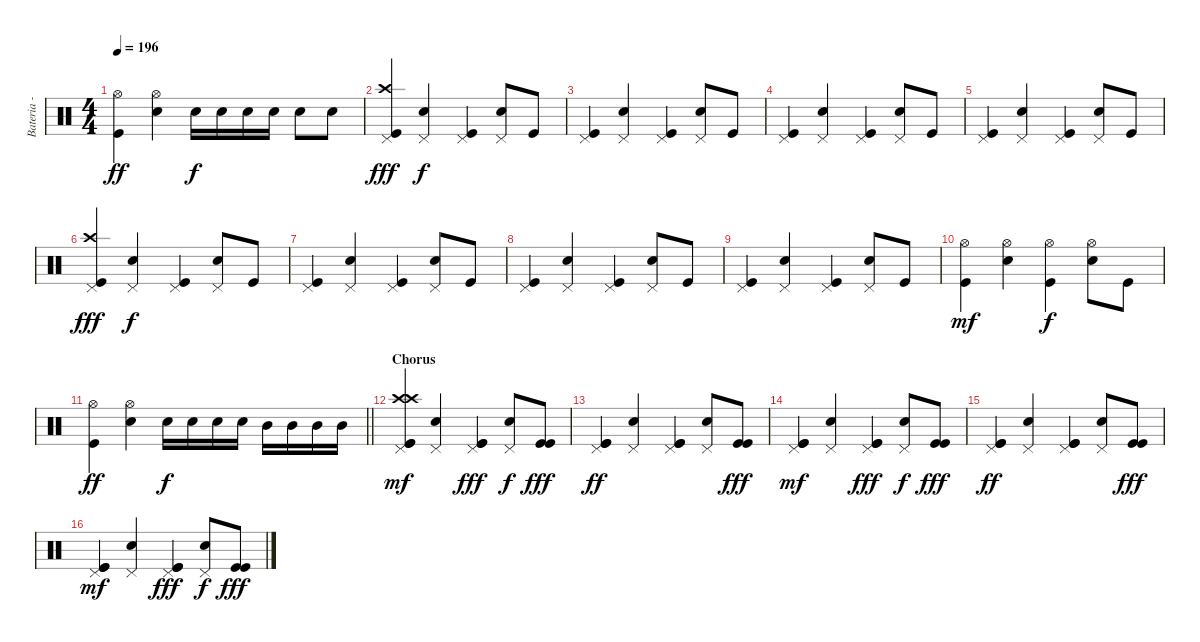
\track ("Bateria - Larzon" "Bateria - ") {instrument percussion}
\staff {score}
\articulation defaults
\ts (4 4)
\tempo 196
\clef neutral
\ks c
("Kick (hit)" "Hi-Hat (open)").4{dy ff} ("Electric Snare (hit)" "Hi-Hat (open)").4 "Electric Snare (hit)".16{dy f} "Electric Snare (hit)".16 "Electric Snare (hit)".16 "Electric Snare (hit)".16 "Electric Snare (hit)".8 "Electric Snare (hit)".8 |
("Kick (hit)" "Crash high (hit)" "Pedal Hi-Hat (hit)").4{dy fff} ("Electric Snare (hit)" "Pedal Hi-Hat (hit)").4{dy f} ("Kick (hit)" "Pedal Hi-Hat (hit)").4 ("Electric Snare (hit)" "Pedal Hi-Hat (hit)").8 "Kick (hit)".8 |
("Kick (hit)" "Pedal Hi-Hat (hit)").4 ("Electric Snare (hit)" "Pedal Hi-Hat (hit)").4 ("Kick (hit)" "Pedal Hi-Hat (hit)").4 ("Electric Snare (hit)" "Pedal Hi-Hat (hit)").8 "Kick (hit)".8 |
("Kick (hit)" "Pedal Hi-Hat (hit)").4 ("Electric Snare (hit)" "Pedal Hi-Hat (hit)").4 ("Kick (hit)" "Pedal Hi-Hat (hit)").4 ("Electric Snare (hit)" "Pedal Hi-Hat (hit)").8 "Kick (hit)".8 |
("Kick (hit)" "Pedal Hi-Hat (hit)").4 ("Electric Snare (hit)" "Pedal Hi-Hat (hit)").4 ("Kick (hit)" "Pedal Hi-Hat (hit)").4 ("Electric Snare (hit)" "Pedal Hi-Hat (hit)").8 "Kick (hit)".8 |
("Kick (hit)" "Crash high (hit)" "Pedal Hi-Hat (hit)").4{dy fff} ("Electric Snare (hit)" "Pedal Hi-Hat (hit)").4{dy f} ("Kick (hit)" "Pedal Hi-Hat (hit)").4 ("Electric Snare (hit)" "Pedal Hi-Hat (hit)").8 "Kick (hit)".8 |
("Kick (hit)" "Pedal Hi-Hat (hit)").4 ("Electric Snare (hit)" "Pedal Hi-Hat (hit)").4 ("Kick (hit)" "Pedal Hi-Hat (hit)").4 ("Electric Snare (hit)" "Pedal Hi-Hat (hit)").8 "Kick (hit)".8 |
("Kick (hit)" "Pedal Hi-Hat (hit)").4 ("Electric Snare (hit)" "Pedal Hi-Hat (hit)").4 ("Kick (hit)" "Pedal Hi-Hat (hit)").4 ("Electric Snare (hit)" "Pedal Hi-Hat (hit)").8 "Kick (hit)".8 |
("Kick (hit)" "Pedal Hi-Hat (hit)").4 ("Electric Snare (hit)" "Pedal Hi-Hat (hit)").4 ("Kick (hit)" "Pedal Hi-Hat (hit)").4 ("Electric Snare (hit)" "Pedal Hi-Hat (hit)").8 "Kick (hit)".8 |
("Kick (hit)" "Hi-Hat (open)").4{dy mf} ("Electric Snare (hit)" "Hi-Hat (open)").4 ("Kick (hit)" "Hi-Hat (open)").4{dy f} ("Electric Snare (hit)" "Hi-Hat (open)").8 "Kick (hit)".8 |
\barLineRight lightlight
("Kick (hit)" "Hi-Hat (open)").4{dy ff} ("Electric Snare (hit)" "Hi-Hat (open)").4 "Electric Snare (hit)".16{dy f} "Electric Snare (hit)".16 "Electric Snare (hit)".16 "Electric Snare (hit)".16 "Mid Tom (hit)".16 "Mid Tom (hit)".16 "Mid Tom (hit)".16 "Mid Tom (hit)".16 |
\section ("" "Chorus")
("Kick (hit)" "Kick (hit)" "Crash high (hit)" "Crash high (hit)" "Pedal Hi-Hat (hit)").4{dy mf} ("Electric Snare (hit)" "Pedal Hi-Hat (hit)").4 ("Kick (hit)" "Kick (hit)" "Pedal Hi-Hat (hit)").4{dy fff} ("Electric Snare (hit)" "Pedal Hi-Hat (hit)").8{dy f} ("Kick (hit)" "Kick (hit)").8{dy fff} |
("Kick (hit)" "Kick (hit)" "Pedal Hi-Hat (hit)").4{dy ff} ("Electric Snare (hit)" "Pedal Hi-Hat (hit)").4 ("Kick (hit)" "Kick (hit)" "Pedal Hi-Hat (hit)").4 ("Electric Snare (hit)" "Pedal Hi-Hat (hit)").8 ("Kick (hit)" "Kick (hit)").8{dy fff} |
("Kick (hit)" "Kick (hit)" "Pedal Hi-Hat (hit)").4{dy mf} ("Electric Snare (hit)" "Pedal Hi-Hat (hit)").4 ("Kick (hit)" "Kick (hit)" "Pedal Hi-Hat (hit)").4{dy fff} ("Electric Snare (hit)" "Pedal Hi-Hat (hit)").8{dy f} ("Kick (hit)" "Kick (hit)").8{dy fff} |
("Kick (hit)" "Kick (hit)" "Pedal Hi-Hat (hit)").4{dy ff} ("Electric Snare (hit)" "Pedal Hi-Hat (hit)").4 ("Kick (hit)" "Kick (hit)" "Pedal Hi-Hat (hit)").4 ("Electric Snare (hit)" "Pedal Hi-Hat (hit)").8 ("Kick (hit)" "Kick (hit)").8{dy fff} |
("Kick (hit)" "Kick (hit)" "Pedal Hi-Hat (hit)").4{dy mf} ("Electric Snare (hit)" "Pedal Hi-Hat (hit)").4 ("Kick (hit)" "Kick (hit)" "Pedal Hi-Hat (hit)").4{dy fff} ("Electric Snare (hit)" "Pedal Hi-Hat (hit)").8{dy f} ("Kick (hit)" "Kick (hit)").8{dy fff}
